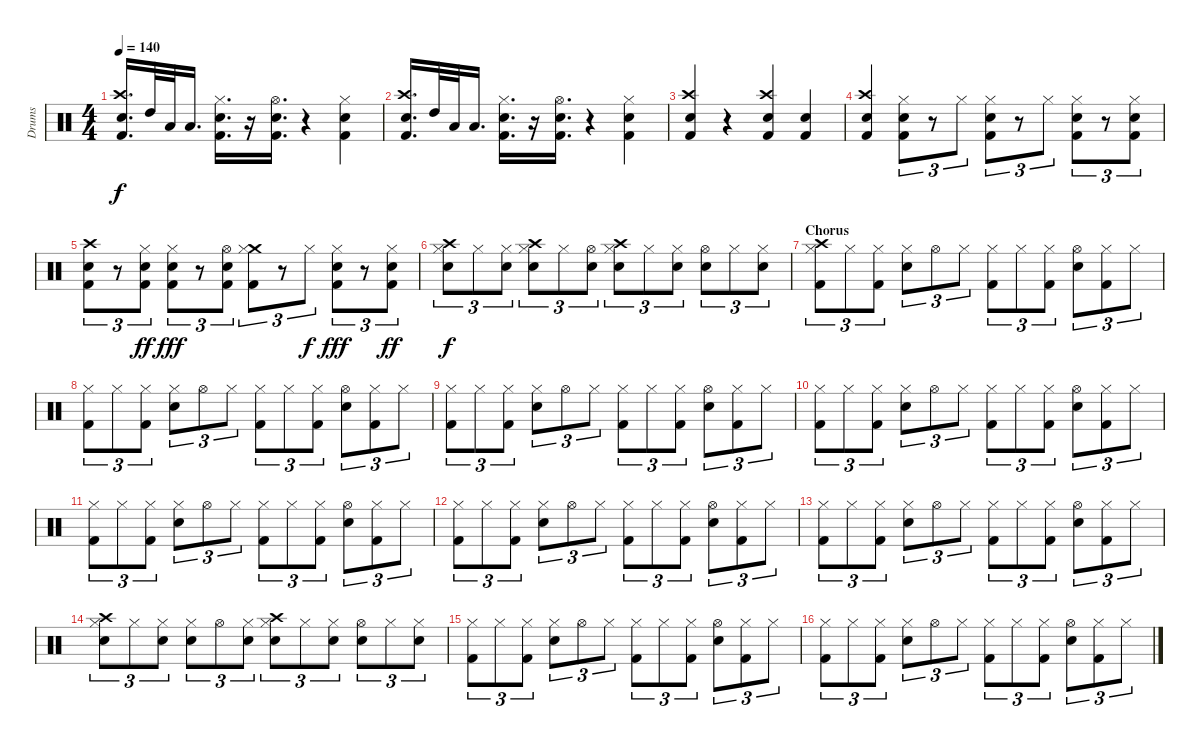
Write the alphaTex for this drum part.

\track ("Drums" "Drums") {instrument percussion}
\staff {score}
\articulation defaults
\ts (4 4)
\tempo 140
\clef neutral
\ks c
("Snare (hit) 2" "Crash high (hit)" "Kick (hit) 2").16{d dy f} "High Tom (hit)".32 "Low Tom (hit)".32 "Low Floor Tom (hit)".16{d} ("Kick (hit) 2" "Snare (hit) 2" "Hi-Hat (closed)").16{d} r.16 ("Snare (hit) 2" "Hi-Hat (open)" "Kick (hit) 2").16{d} r.4 ("Kick (hit) 2" "Snare (hit) 2" "Hi-Hat (closed)").4 |
("Snare (hit) 2" "Crash high (hit)" "Kick (hit) 2").16{d} "High Tom (hit)".32 "Low Tom (hit)".32 "Low Floor Tom (hit)".16{d} ("Kick (hit) 2" "Snare (hit) 2" "Hi-Hat (closed)").16{d} r.16 ("Snare (hit) 2" "Hi-Hat (open)" "Kick (hit) 2").16{d} r.4 ("Kick (hit) 2" "Snare (hit) 2" "Hi-Hat (closed)").4 |
("Snare (hit) 2" "Kick (hit) 2" "Crash high (hit)").4 r.4 ("Snare (hit) 2" "Kick (hit) 2" "Crash high (hit)").4 ("Snare (hit) 2" "Kick (hit) 2").4 |
("Snare (hit) 2" "Kick (hit) 2" "Crash high (hit)").4 ("Snare (hit) 2" "Kick (hit) 2" "Hi-Hat (closed)").8{tu (3 2)} r.8{tu (3 2)} "Hi-Hat (closed)".8{tu (3 2)} ("Snare (hit) 2" "Hi-Hat (closed)" "Kick (hit) 2").8{tu (3 2)} r.8{tu (3 2)} "Hi-Hat (closed)".8{tu (3 2)} ("Snare (hit) 2" "Kick (hit) 2" "Hi-Hat (closed)").8{tu (3 2)} r.8{tu (3 2)} ("Snare (hit) 2" "Kick (hit) 2" "Hi-Hat (closed)").8{tu (3 2)} |
("Snare (hit) 2" "Kick (hit) 2" "Crash high (hit)").8{tu (3 2)} r.8{tu (3 2)} ("Snare (hit) 2" "Kick (hit) 2" "Hi-Hat (closed)").8{tu (3 2) dy ff} ("Snare (hit) 2" "Kick (hit) 2" "Hi-Hat (closed)").8{tu (3 2) dy fff} r.8{tu (3 2)} ("Snare (hit) 2" "Kick (hit) 2" "Hi-Hat (open)").8{tu (3 2)} ("Crash medium (hit)" "Kick (hit) 2" "Hi-Hat (closed)").8{tu (3 2)} r.8{tu (3 2)} "Hi-Hat (closed)".8{tu (3 2) dy f} ("Snare (hit) 2" "Kick (hit) 2" "Hi-Hat (closed)").8{tu (3 2) dy fff} r.8{tu (3 2)} ("Snare (hit) 2" "Kick (hit) 2" "Hi-Hat (closed)").8{tu (3 2) dy ff} |
("Snare (hit) 2" "Hi-Hat (closed)" "Crash high (hit)").8{tu (3 2) dy f} "Hi-Hat (closed)".8{tu (3 2)} ("Snare (hit) 2" "Hi-Hat (closed)").8{tu (3 2)} ("Snare (hit) 2" "Hi-Hat (closed)" "Crash high (hit)").8{tu (3 2)} "Hi-Hat (closed)".8{tu (3 2)} ("Snare (hit) 2" "Hi-Hat (open)").8{tu (3 2)} ("Snare (hit) 2" "Hi-Hat (closed)" "Crash high (hit)").8{tu (3 2)} "Hi-Hat (closed)".8{tu (3 2)} ("Snare (hit) 2" "Hi-Hat (closed)").8{tu (3 2)} ("Snare (hit) 2" "Hi-Hat (open)").8{tu (3 2)} "Hi-Hat (closed)".8{tu (3 2)} ("Snare (hit) 2" "Hi-Hat (closed)").8{tu (3 2)} |
\section ("" "Chorus")
("Kick (hit) 2" "Hi-Hat (closed)" "Crash high (hit)").8{tu (3 2)} "Hi-Hat (closed)".8{tu (3 2)} ("Kick (hit) 2" "Hi-Hat (closed)").8{tu (3 2)} ("Snare (hit) 2" "Hi-Hat (closed)").8{tu (3 2)} "Hi-Hat (open)".8{tu (3 2)} "Hi-Hat (closed)".8{tu (3 2)} ("Kick (hit) 2" "Hi-Hat (closed)").8{tu (3 2)} "Hi-Hat (closed)".8{tu (3 2)} ("Kick (hit) 2" "Hi-Hat (closed)").8{tu (3 2)} ("Snare (hit) 2" "Hi-Hat (open)").8{tu (3 2)} ("Kick (hit) 2" "Hi-Hat (closed)").8{tu (3 2)} "Hi-Hat (closed)".8{tu (3 2)} |
("Kick (hit) 2" "Hi-Hat (closed)").8{tu (3 2)} "Hi-Hat (closed)".8{tu (3 2)} ("Kick (hit) 2" "Hi-Hat (closed)").8{tu (3 2)} ("Snare (hit) 2" "Hi-Hat (closed)").8{tu (3 2)} "Hi-Hat (open)".8{tu (3 2)} "Hi-Hat (closed)".8{tu (3 2)} ("Kick (hit) 2" "Hi-Hat (closed)").8{tu (3 2)} "Hi-Hat (closed)".8{tu (3 2)} ("Kick (hit) 2" "Hi-Hat (closed)").8{tu (3 2)} ("Snare (hit) 2" "Hi-Hat (open)").8{tu (3 2)} ("Kick (hit) 2" "Hi-Hat (closed)").8{tu (3 2)} "Hi-Hat (closed)".8{tu (3 2)} |
("Kick (hit) 2" "Hi-Hat (closed)").8{tu (3 2)} "Hi-Hat (closed)".8{tu (3 2)} ("Kick (hit) 2" "Hi-Hat (closed)").8{tu (3 2)} ("Snare (hit) 2" "Hi-Hat (closed)").8{tu (3 2)} "Hi-Hat (open)".8{tu (3 2)} "Hi-Hat (closed)".8{tu (3 2)} ("Kick (hit) 2" "Hi-Hat (closed)").8{tu (3 2)} "Hi-Hat (closed)".8{tu (3 2)} ("Kick (hit) 2" "Hi-Hat (closed)").8{tu (3 2)} ("Snare (hit) 2" "Hi-Hat (open)").8{tu (3 2)} ("Kick (hit) 2" "Hi-Hat (closed)").8{tu (3 2)} "Hi-Hat (closed)".8{tu (3 2)} |
("Kick (hit) 2" "Hi-Hat (closed)").8{tu (3 2)} "Hi-Hat (closed)".8{tu (3 2)} ("Kick (hit) 2" "Hi-Hat (closed)").8{tu (3 2)} ("Snare (hit) 2" "Hi-Hat (closed)").8{tu (3 2)} "Hi-Hat (open)".8{tu (3 2)} "Hi-Hat (closed)".8{tu (3 2)} ("Kick (hit) 2" "Hi-Hat (closed)").8{tu (3 2)} "Hi-Hat (closed)".8{tu (3 2)} ("Kick (hit) 2" "Hi-Hat (closed)").8{tu (3 2)} ("Snare (hit) 2" "Hi-Hat (open)").8{tu (3 2)} ("Kick (hit) 2" "Hi-Hat (closed)").8{tu (3 2)} "Hi-Hat (closed)".8{tu (3 2)} |
("Kick (hit) 2" "Hi-Hat (closed)").8{tu (3 2)} "Hi-Hat (closed)".8{tu (3 2)} ("Kick (hit) 2" "Hi-Hat (closed)").8{tu (3 2)} ("Snare (hit) 2" "Hi-Hat (closed)").8{tu (3 2)} "Hi-Hat (open)".8{tu (3 2)} "Hi-Hat (closed)".8{tu (3 2)} ("Kick (hit) 2" "Hi-Hat (closed)").8{tu (3 2)} "Hi-Hat (closed)".8{tu (3 2)} ("Kick (hit) 2" "Hi-Hat (closed)").8{tu (3 2)} ("Snare (hit) 2" "Hi-Hat (open)").8{tu (3 2)} ("Kick (hit) 2" "Hi-Hat (closed)").8{tu (3 2)} "Hi-Hat (closed)".8{tu (3 2)} |
("Kick (hit) 2" "Hi-Hat (closed)").8{tu (3 2)} "Hi-Hat (closed)".8{tu (3 2)} ("Kick (hit) 2" "Hi-Hat (closed)").8{tu (3 2)} ("Snare (hit) 2" "Hi-Hat (closed)").8{tu (3 2)} "Hi-Hat (open)".8{tu (3 2)} "Hi-Hat (closed)".8{tu (3 2)} ("Kick (hit) 2" "Hi-Hat (closed)").8{tu (3 2)} "Hi-Hat (closed)".8{tu (3 2)} ("Kick (hit) 2" "Hi-Hat (closed)").8{tu (3 2)} ("Snare (hit) 2" "Hi-Hat (open)").8{tu (3 2)} ("Kick (hit) 2" "Hi-Hat (closed)").8{tu (3 2)} "Hi-Hat (closed)".8{tu (3 2)} |
("Kick (hit) 2" "Hi-Hat (closed)").8{tu (3 2)} "Hi-Hat (closed)".8{tu (3 2)} ("Kick (hit) 2" "Hi-Hat (closed)").8{tu (3 2)} ("Snare (hit) 2" "Hi-Hat (closed)").8{tu (3 2)} "Hi-Hat (open)".8{tu (3 2)} "Hi-Hat (closed)".8{tu (3 2)} ("Kick (hit) 2" "Hi-Hat (closed)").8{tu (3 2)} "Hi-Hat (closed)".8{tu (3 2)} ("Kick (hit) 2" "Hi-Hat (closed)").8{tu (3 2)} ("Snare (hit) 2" "Hi-Hat (open)").8{tu (3 2)} ("Kick (hit) 2" "Hi-Hat (closed)").8{tu (3 2)} "Hi-Hat (closed)".8{tu (3 2)} |
("Snare (hit) 2" "Hi-Hat (closed)" "Crash high (hit)").8{tu (3 2)} "Hi-Hat (closed)".8{tu (3 2)} ("Snare (hit) 2" "Hi-Hat (closed)").8{tu (3 2)} ("Snare (hit) 2" "Hi-Hat (closed)").8{tu (3 2)} "Hi-Hat (open)".8{tu (3 2)} ("Snare (hit) 2" "Hi-Hat (closed)").8{tu (3 2)} ("Snare (hit) 2" "Hi-Hat (closed)" "Crash high (hit)").8{tu (3 2)} "Hi-Hat (closed)".8{tu (3 2)} ("Snare (hit) 2" "Hi-Hat (closed)").8{tu (3 2)} ("Snare (hit) 2" "Hi-Hat (open)").8{tu (3 2)} "Hi-Hat (closed)".8{tu (3 2)} ("Snare (hit) 2" "Hi-Hat (closed)").8{tu (3 2)} |
("Kick (hit) 2" "Hi-Hat (closed)").8{tu (3 2)} "Hi-Hat (closed)".8{tu (3 2)} ("Kick (hit) 2" "Hi-Hat (closed)").8{tu (3 2)} ("Snare (hit) 2" "Hi-Hat (closed)").8{tu (3 2)} "Hi-Hat (open)".8{tu (3 2)} "Hi-Hat (closed)".8{tu (3 2)} ("Kick (hit) 2" "Hi-Hat (closed)").8{tu (3 2)} "Hi-Hat (closed)".8{tu (3 2)} ("Kick (hit) 2" "Hi-Hat (closed)").8{tu (3 2)} ("Snare (hit) 2" "Hi-Hat (open)").8{tu (3 2)} ("Kick (hit) 2" "Hi-Hat (closed)").8{tu (3 2)} "Hi-Hat (closed)".8{tu (3 2)} |
("Kick (hit) 2" "Hi-Hat (closed)").8{tu (3 2)} "Hi-Hat (closed)".8{tu (3 2)} ("Kick (hit) 2" "Hi-Hat (closed)").8{tu (3 2)} ("Snare (hit) 2" "Hi-Hat (closed)").8{tu (3 2)} "Hi-Hat (open)".8{tu (3 2)} "Hi-Hat (closed)".8{tu (3 2)} ("Kick (hit) 2" "Hi-Hat (closed)").8{tu (3 2)} "Hi-Hat (closed)".8{tu (3 2)} ("Kick (hit) 2" "Hi-Hat (closed)").8{tu (3 2)} ("Snare (hit) 2" "Hi-Hat (open)").8{tu (3 2)} ("Kick (hit) 2" "Hi-Hat (closed)").8{tu (3 2)} "Hi-Hat (closed)".8{tu (3 2)}
